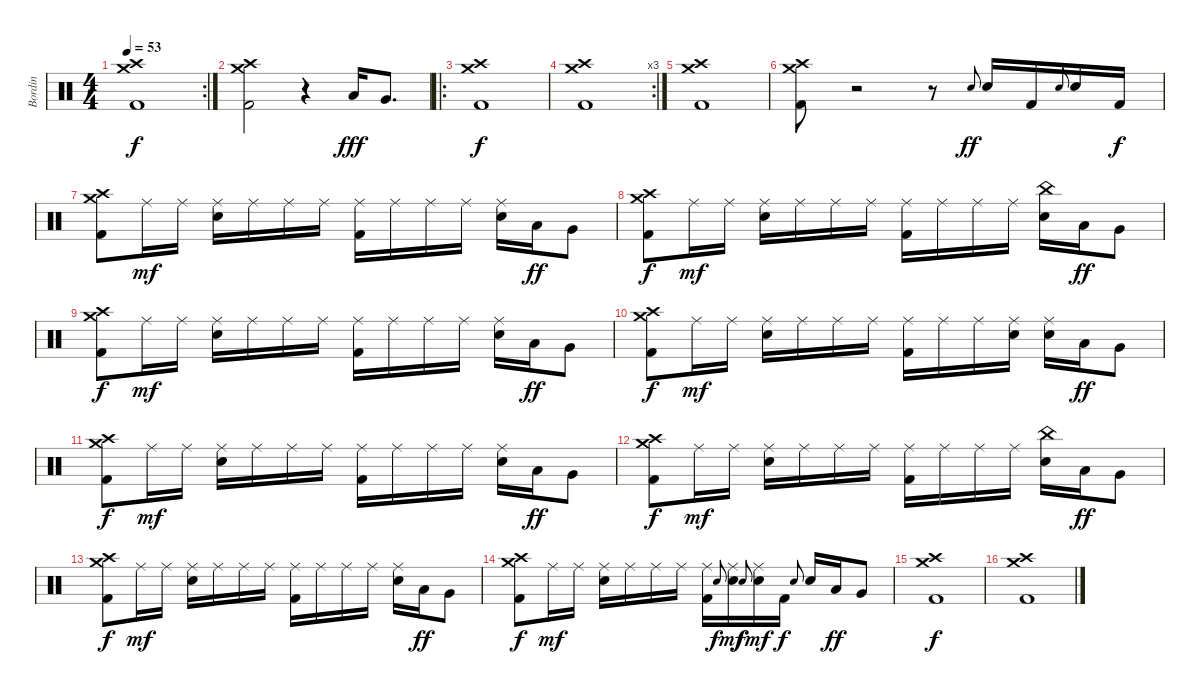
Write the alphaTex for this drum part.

\track ("Bordin" "Bordin") {instrument percussion}
\staff {score}
\articulation defaults
\rc 2
\ts (4 4)
\tempo 53
\clef neutral
\ks c
("Crash high (hit)" "Crash medium (hit)" "Kick (hit) 2").1{dy f} |
("Crash high (hit)" "Crash medium (hit)" "Kick (hit) 2").2 r.4 "Low Tom (hit)".16{dy fff} "Very Low Tom (hit)".8{d} |
\ro
("Crash high (hit)" "Crash medium (hit)" "Kick (hit) 2").1{dy f} |
\rc 3
("Crash high (hit)" "Crash medium (hit)" "Kick (hit) 2").1 |
("Crash high (hit)" "Crash medium (hit)" "Kick (hit) 2").1 |
("Crash high (hit)" "Crash medium (hit)" "Kick (hit) 2").8 r.2 r.8 "Electric Snare (hit)".8{gr onbeat dy ff} "Electric Snare (hit)".16 "Kick (hit) 2".16 "Electric Snare (hit)".8{gr onbeat} "Electric Snare (hit)".16 "Kick (hit) 2".16{dy f} |
("Crash high (hit)" "Crash medium (hit)" "Kick (hit) 2").8 "Ride (middle)".16{dy mf} "Ride (middle)".16 ("Ride (middle)" "Electric Snare (hit)").16 "Ride (middle)".16 "Ride (middle)".16 "Ride (middle)".16 ("Ride (middle)" "Kick (hit) 2").16 "Ride (middle)".16 "Ride (middle)".16 "Ride (middle)".16 ("Ride (middle)" "Electric Snare (hit)").16 "Low Tom (hit)".16{dy ff} "Very Low Tom (hit)".8 |
("Crash high (hit)" "Crash medium (hit)" "Kick (hit) 2").8{dy f} "Ride (middle)".16{dy mf} "Ride (middle)".16 ("Ride (middle)" "Electric Snare (hit)").16 "Ride (middle)".16 "Ride (middle)".16 "Ride (middle)".16 ("Ride (middle)" "Kick (hit) 2").16 "Ride (middle)".16 "Ride (middle)".16 "Ride (middle)".16 ("China (hit)" "Electric Snare (hit)").16 "Low Tom (hit)".16{dy ff} "Very Low Tom (hit)".8 |
("Crash high (hit)" "Crash medium (hit)" "Kick (hit) 2").8{dy f} "Ride (middle)".16{dy mf} "Ride (middle)".16 ("Ride (middle)" "Electric Snare (hit)").16 "Ride (middle)".16 "Ride (middle)".16 "Ride (middle)".16 ("Ride (middle)" "Kick (hit) 2").16 "Ride (middle)".16 "Ride (middle)".16 "Ride (middle)".16 ("Ride (middle)" "Electric Snare (hit)").16 "Low Tom (hit)".16{dy ff} "Very Low Tom (hit)".8 |
("Crash high (hit)" "Crash medium (hit)" "Kick (hit) 2").8{dy f} "Ride (middle)".16{dy mf} "Ride (middle)".16 ("Ride (middle)" "Electric Snare (hit)").16 "Ride (middle)".16 "Ride (middle)".16 "Ride (middle)".16 ("Ride (middle)" "Kick (hit) 2").16 "Ride (middle)".16 "Ride (middle)".16 ("Ride (middle)" "Electric Snare (hit)").16 ("Ride (middle)" "Electric Snare (hit)").16 "Low Tom (hit)".16{dy ff} "Very Low Tom (hit)".8 |
("Crash high (hit)" "Crash medium (hit)" "Kick (hit) 2").8{dy f} "Ride (middle)".16{dy mf} "Ride (middle)".16 ("Ride (middle)" "Electric Snare (hit)").16 "Ride (middle)".16 "Ride (middle)".16 "Ride (middle)".16 ("Ride (middle)" "Kick (hit) 2").16 "Ride (middle)".16 "Ride (middle)".16 "Ride (middle)".16 ("Ride (middle)" "Electric Snare (hit)").16 "Low Tom (hit)".16{dy ff} "Very Low Tom (hit)".8 |
("Crash high (hit)" "Crash medium (hit)" "Kick (hit) 2").8{dy f} "Ride (middle)".16{dy mf} "Ride (middle)".16 ("Ride (middle)" "Electric Snare (hit)").16 "Ride (middle)".16 "Ride (middle)".16 "Ride (middle)".16 ("Ride (middle)" "Kick (hit) 2").16 "Ride (middle)".16 "Ride (middle)".16 "Ride (middle)".16 ("China (hit)" "Electric Snare (hit)").16 "Low Tom (hit)".16{dy ff} "Very Low Tom (hit)".8 |
("Crash high (hit)" "Crash medium (hit)" "Kick (hit) 2").8{dy f} "Ride (middle)".16{dy mf} "Ride (middle)".16 ("Ride (middle)" "Electric Snare (hit)").16 "Ride (middle)".16 "Ride (middle)".16 "Ride (middle)".16 ("Ride (middle)" "Kick (hit) 2").16 "Ride (middle)".16 "Ride (middle)".16 "Ride (middle)".16 ("Ride (middle)" "Electric Snare (hit)").16 "Low Tom (hit)".16{dy ff} "Very Low Tom (hit)".8 |
("Crash high (hit)" "Crash medium (hit)" "Kick (hit) 2").8{dy f} "Ride (middle)".16{dy mf} "Ride (middle)".16 ("Ride (middle)" "Electric Snare (hit)").16 "Ride (middle)".16 "Ride (middle)".16 "Ride (middle)".16 ("Ride (middle)" "Kick (hit) 2").16 "Electric Snare (hit)".8{gr onbeat dy f} ("Ride (middle)" "Electric Snare (hit)").16{dy mf} "Electric Snare (hit)".8{gr onbeat dy f} ("Ride (middle)" "Electric Snare (hit)").16{dy mf} "Kick (hit) 2".16{dy f} "Electric Snare (hit)".8{gr onbeat} "Electric Snare (hit)".16 "Low Tom (hit)".16{dy ff} "Very Low Tom (hit)".8 |
("Crash high (hit)" "Crash medium (hit)" "Kick (hit) 2").1{dy f} |
("Crash high (hit)" "Crash medium (hit)" "Kick (hit) 2").1
